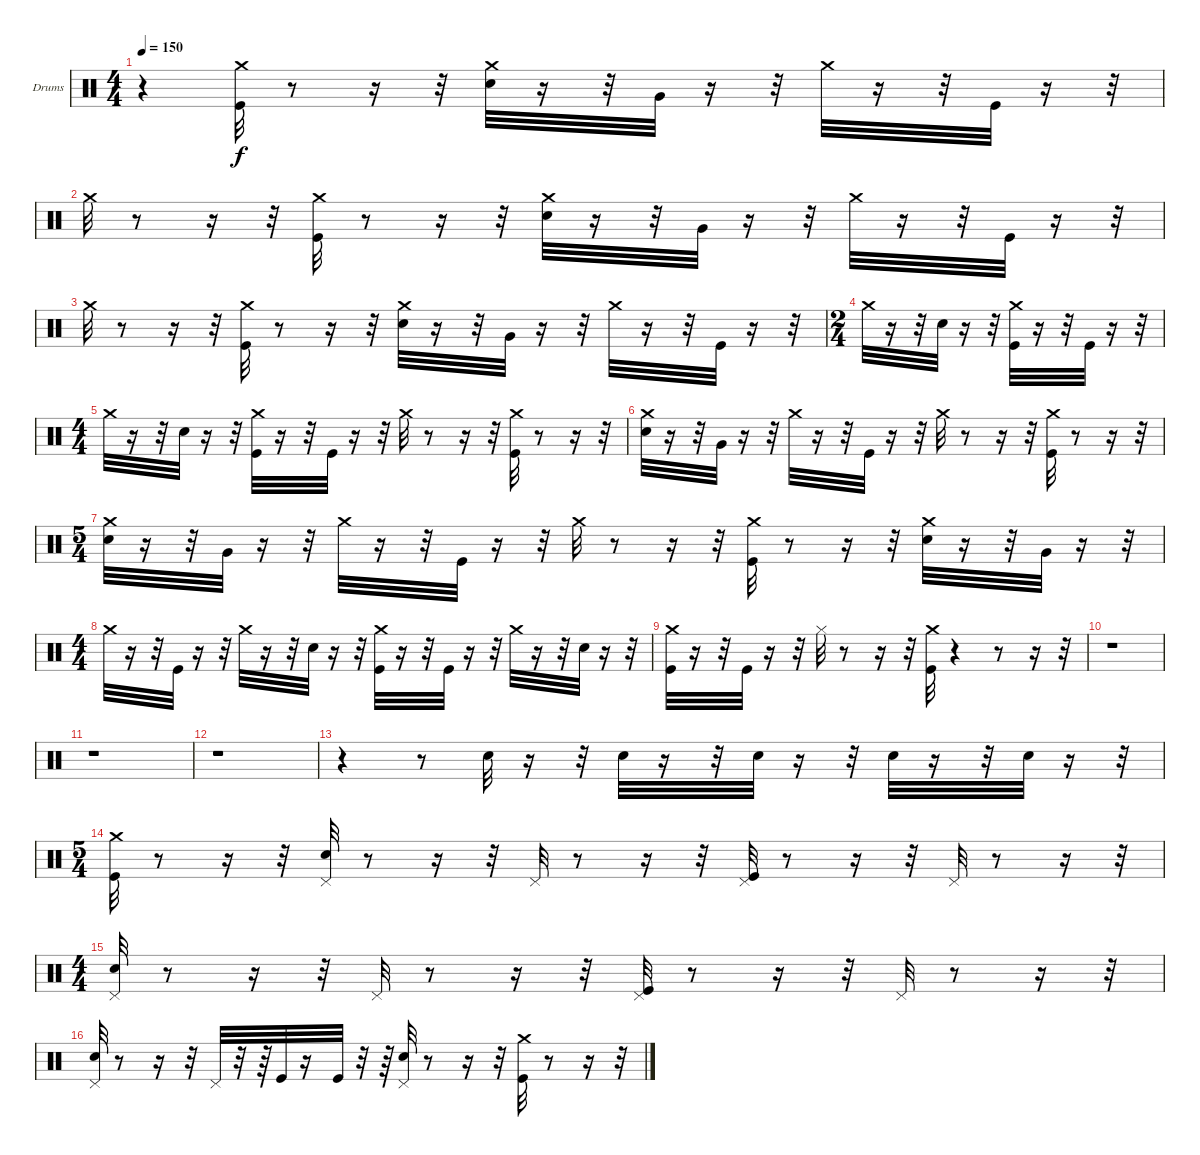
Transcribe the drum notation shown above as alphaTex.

\bracketExtendMode groupsimilarinstruments
\firstSystemTrackNameOrientation horizontal
\otherSystemsTrackNameOrientation horizontal
\track ("Drumkit" "Drums") {instrument percussion}
\staff {score}
\articulation defaults
\ts (4 4)
\tempo 150
\clef neutral
\ks c
r.4{dy f} ("Kick (hit)" "Crash medium (hit)").32 r.8 r.16 r.32 ("Snare (hit) 2" "Crash medium (hit)").32 r.16 r.32 "Very Low Tom (hit)".32 r.16 r.32 "Crash medium (hit)".32 r.16 r.32 "Kick (hit)".32 r.16 r.32 |
"Crash medium (hit)".32 r.8 r.16 r.32 ("Kick (hit)" "Crash medium (hit)").32 r.8 r.16 r.32 ("Snare (hit) 2" "Crash medium (hit)").32 r.16 r.32 "Very Low Tom (hit)".32 r.16 r.32 "Crash medium (hit)".32 r.16 r.32 "Kick (hit)".32 r.16 r.32 |
"Crash medium (hit)".32 r.8 r.16 r.32 ("Kick (hit)" "Crash medium (hit)").32 r.8 r.16 r.32 ("Snare (hit) 2" "Crash medium (hit)").32 r.16 r.32 "Very Low Tom (hit)".32 r.16 r.32 "Crash medium (hit)".32 r.16 r.32 "Kick (hit)".32 r.16 r.32 |
\ts (2 4)
"Crash medium (hit)".32 r.16 r.32 "Snare (hit) 2".32 r.16 r.32 ("Crash medium (hit)" "Kick (hit)").32 r.16 r.32 "Kick (hit)".32 r.16 r.32 |
\ts (4 4)
"Crash medium (hit)".32 r.16 r.32 "Snare (hit) 2".32 r.16 r.32 ("Crash medium (hit)" "Kick (hit)").32 r.16 r.32 "Kick (hit)".32 r.16 r.32 "Crash medium (hit)".32 r.8 r.16 r.32 ("Crash medium (hit)" "Kick (hit)").32 r.8 r.16 r.32 |
("Crash medium (hit)" "Snare (hit) 2").32 r.16 r.32 "Very Low Tom (hit)".32 r.16 r.32 "Crash medium (hit)".32 r.16 r.32 "Kick (hit)".32 r.16 r.32 "Crash medium (hit)".32 r.8 r.16 r.32 ("Kick (hit)" "Crash medium (hit)").32 r.8 r.16 r.32 |
\ts (5 4)
("Snare (hit) 2" "Crash medium (hit)").32 r.16 r.32 "Very Low Tom (hit)".32 r.16 r.32 "Crash medium (hit)".32 r.16 r.32 "Kick (hit)".32 r.16 r.32 "Crash medium (hit)".32 r.8 r.16 r.32 ("Kick (hit)" "Crash medium (hit)").32 r.8 r.16 r.32 ("Snare (hit) 2" "Crash medium (hit)").32 r.16 r.32 "Very Low Tom (hit)".32 r.16 r.32 |
\ts (4 4)
"Crash medium (hit)".32 r.16 r.32 "Kick (hit)".32 r.16 r.32 "Crash medium (hit)".32 r.16 r.32 "Snare (hit) 2".32 r.16 r.32 ("Crash medium (hit)" "Kick (hit)").32 r.16 r.32 "Kick (hit)".32 r.16 r.32 "Crash medium (hit)".32 r.16 r.32 "Snare (hit) 2".32 r.16 r.32 |
("Crash medium (hit)" "Kick (hit)").32 r.16 r.32 "Kick (hit)".32 r.16 r.32 "Hi-Hat (closed)".32 r.8 r.16 r.32 ("Kick (hit)" "Crash medium (hit)").32 r.4 r.8 r.16 r.32 |
r.1 |
r.1 |
r.1 |
r.4 r.8 "Snare (hit) 2".32 r.16 r.32 "Snare (hit) 2".32 r.16 r.32 "Snare (hit) 2".32 r.16 r.32 "Snare (hit) 2".32 r.16 r.32 "Snare (hit) 2".32 r.16 r.32 |
\ts (5 4)
("Crash medium (hit)" "Kick (hit)").32 r.8 r.16 r.32 ("Pedal Hi-Hat (hit)" "Snare (hit) 2").32 r.8 r.16 r.32 "Pedal Hi-Hat (hit)".32 r.8 r.16 r.32 ("Pedal Hi-Hat (hit)" "Kick (hit)").32 r.8 r.16 r.32 "Pedal Hi-Hat (hit)".32 r.8 r.16 r.32 |
\ts (4 4)
("Pedal Hi-Hat (hit)" "Snare (hit) 2").32 r.8 r.16 r.32 "Pedal Hi-Hat (hit)".32 r.8 r.16 r.32 ("Pedal Hi-Hat (hit)" "Kick (hit)").32 r.8 r.16 r.32 "Pedal Hi-Hat (hit)".32 r.8 r.16 r.32 |
("Pedal Hi-Hat (hit)" "Snare (hit) 2").32 r.8 r.16 r.32 "Pedal Hi-Hat (hit)".32 r.32 r.64 "Kick (hit)".32 r.16 "Kick (hit)".32 r.32 r.64 ("Pedal Hi-Hat (hit)" "Snare (hit) 2").32 r.8 r.16 r.32 ("Crash medium (hit)" "Kick (hit)").32 r.8 r.16 r.32
